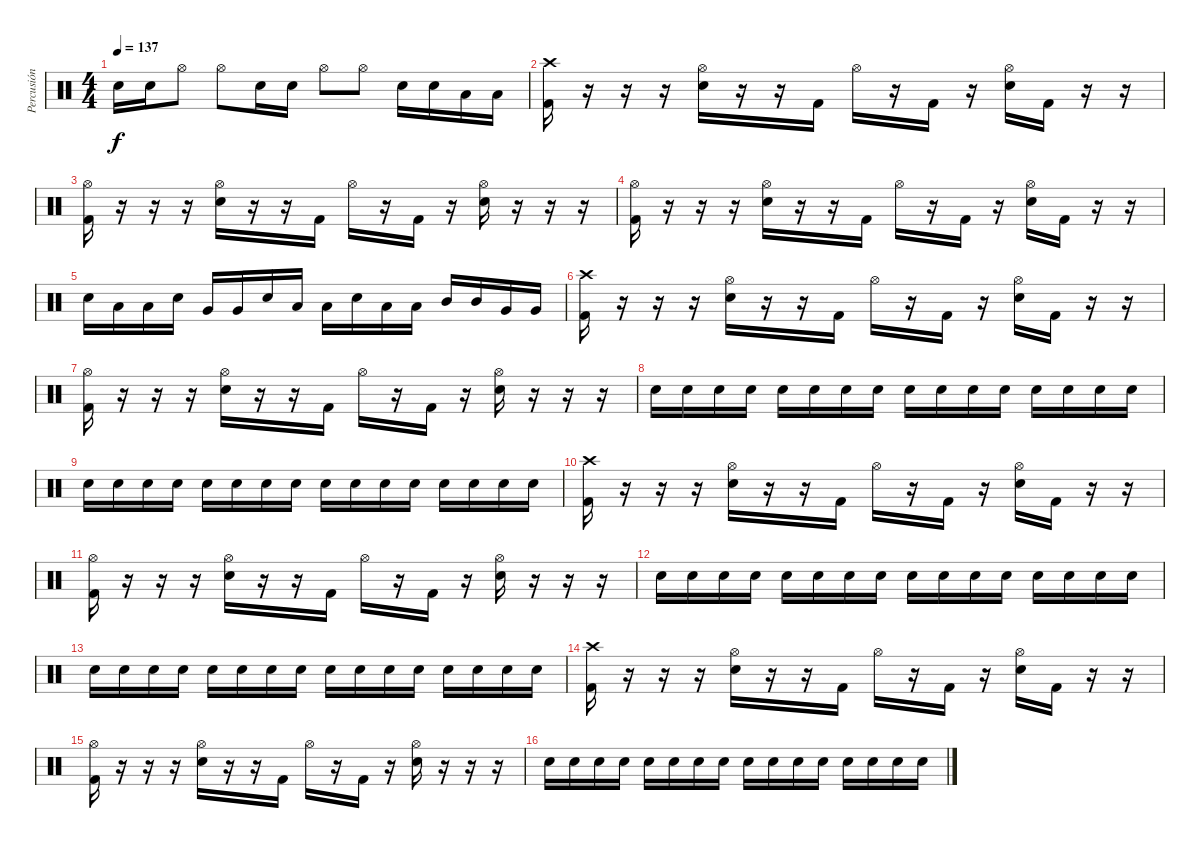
\track ("Percusión" "Percusión") {instrument percussion}
\staff {score}
\articulation defaults
\ts (4 4)
\tempo 137
\clef neutral
\ks c "Electric Snare (hit)".16{dy f} "Electric Snare (hit)".16 "Hi-Hat (open)".8 "Hi-Hat (open)".8 "Electric Snare (hit)".16 "Electric Snare (hit)".16 "Hi-Hat (open)".8 "Hi-Hat (open)".8 "Electric Snare (hit)".16 "Electric Snare (hit)".16 "Low Tom (hit)".16 "Low Tom (hit)".16
|
("Crash high (hit)" "Kick (hit) 2").16 r.16 r.16 r.16 ("Hi-Hat (open)" "Electric Snare (hit)").16 r.16 r.16 "Kick (hit) 2".16 "Hi-Hat (open)".16 r.16 "Kick (hit) 2".16 r.16 ("Hi-Hat (open)" "Electric Snare (hit)").16 "Kick (hit) 2".16 r.16 r.16 |
("Hi-Hat (open)" "Kick (hit) 2").16 r.16 r.16 r.16 ("Hi-Hat (open)" "Electric Snare (hit)").16 r.16 r.16 "Kick (hit) 2".16 "Hi-Hat (open)".16 r.16 "Kick (hit) 2".16 r.16 ("Hi-Hat (open)" "Electric Snare (hit)").16 r.16 r.16 r.16 |
("Hi-Hat (open)" "Kick (hit) 2").16 r.16 r.16 r.16 ("Hi-Hat (open)" "Electric Snare (hit)").16 r.16 r.16 "Kick (hit) 2".16 "Hi-Hat (open)".16 r.16 "Kick (hit) 2".16 r.16 ("Hi-Hat (open)" "Electric Snare (hit)").16 "Kick (hit) 2".16 r.16 r.16 |
"Electric Snare (hit)".16 "Low Tom (hit)".16 "Low Tom (hit)".16 "Electric Snare (hit)".16 "Very Low Tom (hit)".16 "Very Low Tom (hit)".16 "Electric Snare (hit)".16 "Low Tom (hit)".16 "Low Tom (hit)".16 "Electric Snare (hit)".16 "Low Tom (hit)".16 "Low Tom (hit)".16 "Mid Tom (hit)".16 "Mid Tom (hit)".16 "Very Low Tom (hit)".16 "Very Low Tom (hit)".16 |
("Crash high (hit)" "Kick (hit) 2").16 r.16 r.16 r.16 ("Hi-Hat (open)" "Electric Snare (hit)").16 r.16 r.16 "Kick (hit) 2".16 "Hi-Hat (open)".16 r.16 "Kick (hit) 2".16 r.16 ("Hi-Hat (open)" "Electric Snare (hit)").16 "Kick (hit) 2".16 r.16 r.16 |
("Hi-Hat (open)" "Kick (hit) 2").16 r.16 r.16 r.16 ("Hi-Hat (open)" "Electric Snare (hit)").16 r.16 r.16 "Kick (hit) 2".16 "Hi-Hat (open)".16 r.16 "Kick (hit) 2".16 r.16 ("Hi-Hat (open)" "Electric Snare (hit)").16 r.16 r.16 r.16 |
"Electric Snare (hit)".16 "Electric Snare (hit)".16 "Electric Snare (hit)".16 "Electric Snare (hit)".16 "Electric Snare (hit)".16 "Electric Snare (hit)".16 "Electric Snare (hit)".16 "Electric Snare (hit)".16 "Electric Snare (hit)".16 "Electric Snare (hit)".16 "Electric Snare (hit)".16 "Electric Snare (hit)".16 "Electric Snare (hit)".16 "Electric Snare (hit)".16 "Electric Snare (hit)".16 "Electric Snare (hit)".16 |
"Electric Snare (hit)".16 "Electric Snare (hit)".16 "Electric Snare (hit)".16 "Electric Snare (hit)".16 "Electric Snare (hit)".16 "Electric Snare (hit)".16 "Electric Snare (hit)".16 "Electric Snare (hit)".16 "Electric Snare (hit)".16 "Electric Snare (hit)".16 "Electric Snare (hit)".16 "Electric Snare (hit)".16 "Electric Snare (hit)".16 "Electric Snare (hit)".16 "Electric Snare (hit)".16 "Electric Snare (hit)".16 |
("Crash high (hit)" "Kick (hit) 2").16 r.16 r.16 r.16 ("Hi-Hat (open)" "Electric Snare (hit)").16 r.16 r.16 "Kick (hit) 2".16 "Hi-Hat (open)".16 r.16 "Kick (hit) 2".16 r.16 ("Hi-Hat (open)" "Electric Snare (hit)").16 "Kick (hit) 2".16 r.16 r.16 |
("Hi-Hat (open)" "Kick (hit) 2").16 r.16 r.16 r.16 ("Hi-Hat (open)" "Electric Snare (hit)").16 r.16 r.16 "Kick (hit) 2".16 "Hi-Hat (open)".16 r.16 "Kick (hit) 2".16 r.16 ("Hi-Hat (open)" "Electric Snare (hit)").16 r.16 r.16 r.16 |
"Electric Snare (hit)".16 "Electric Snare (hit)".16 "Electric Snare (hit)".16 "Electric Snare (hit)".16 "Electric Snare (hit)".16 "Electric Snare (hit)".16 "Electric Snare (hit)".16 "Electric Snare (hit)".16 "Electric Snare (hit)".16 "Electric Snare (hit)".16 "Electric Snare (hit)".16 "Electric Snare (hit)".16 "Electric Snare (hit)".16 "Electric Snare (hit)".16 "Electric Snare (hit)".16 "Electric Snare (hit)".16 |
"Electric Snare (hit)".16 "Electric Snare (hit)".16 "Electric Snare (hit)".16 "Electric Snare (hit)".16 "Electric Snare (hit)".16 "Electric Snare (hit)".16 "Electric Snare (hit)".16 "Electric Snare (hit)".16 "Electric Snare (hit)".16 "Electric Snare (hit)".16 "Electric Snare (hit)".16 "Electric Snare (hit)".16 "Electric Snare (hit)".16 "Electric Snare (hit)".16 "Electric Snare (hit)".16 "Electric Snare (hit)".16 |
("Crash high (hit)" "Kick (hit) 2").16 r.16 r.16 r.16 ("Hi-Hat (open)" "Electric Snare (hit)").16 r.16 r.16 "Kick (hit) 2".16 "Hi-Hat (open)".16 r.16 "Kick (hit) 2".16 r.16 ("Hi-Hat (open)" "Electric Snare (hit)").16 "Kick (hit) 2".16 r.16 r.16 |
("Hi-Hat (open)" "Kick (hit) 2").16 r.16 r.16 r.16 ("Hi-Hat (open)" "Electric Snare (hit)").16 r.16 r.16 "Kick (hit) 2".16 "Hi-Hat (open)".16 r.16 "Kick (hit) 2".16 r.16 ("Hi-Hat (open)" "Electric Snare (hit)").16 r.16 r.16 r.16 |
"Electric Snare (hit)".16 "Electric Snare (hit)".16 "Electric Snare (hit)".16 "Electric Snare (hit)".16 "Electric Snare (hit)".16 "Electric Snare (hit)".16 "Electric Snare (hit)".16 "Electric Snare (hit)".16 "Electric Snare (hit)".16 "Electric Snare (hit)".16 "Electric Snare (hit)".16 "Electric Snare (hit)".16 "Electric Snare (hit)".16 "Electric Snare (hit)".16 "Electric Snare (hit)".16 "Electric Snare (hit)".16
